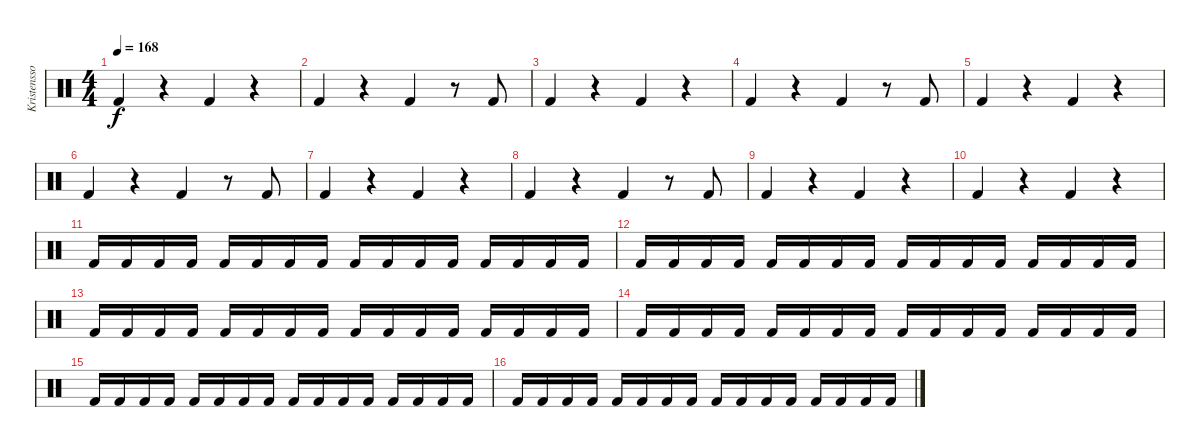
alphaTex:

\track ("Kristensson" "Kristensso") {instrument percussion}
\staff {score}
\articulation defaults
\ts (4 4)
\tempo 168
\clef neutral
\ks c "Kick (hit) 2".4{dy f}
r.4 "Kick (hit) 2".4 r.4 |
"Kick (hit) 2".4 r.4 "Kick (hit) 2".4 r.8 "Kick (hit) 2".8 |
"Kick (hit) 2".4 r.4 "Kick (hit) 2".4 r.4 |
"Kick (hit) 2".4 r.4 "Kick (hit) 2".4 r.8 "Kick (hit) 2".8 |
"Kick (hit) 2".4 r.4 "Kick (hit) 2".4 r.4 |
"Kick (hit) 2".4 r.4 "Kick (hit) 2".4 r.8 "Kick (hit) 2".8 |
"Kick (hit) 2".4 r.4 "Kick (hit) 2".4 r.4 |
"Kick (hit) 2".4 r.4 "Kick (hit) 2".4 r.8 "Kick (hit) 2".8 |
"Kick (hit) 2".4 r.4 "Kick (hit) 2".4 r.4 |
"Kick (hit) 2".4 r.4 "Kick (hit) 2".4 r.4 |
"Kick (hit) 2".16 "Kick (hit) 2".16 "Kick (hit) 2".16 "Kick (hit) 2".16 "Kick (hit) 2".16 "Kick (hit) 2".16 "Kick (hit) 2".16 "Kick (hit) 2".16 "Kick (hit) 2".16 "Kick (hit) 2".16 "Kick (hit) 2".16 "Kick (hit) 2".16 "Kick (hit) 2".16 "Kick (hit) 2".16 "Kick (hit) 2".16 "Kick (hit) 2".16 |
"Kick (hit) 2".16 "Kick (hit) 2".16 "Kick (hit) 2".16 "Kick (hit) 2".16 "Kick (hit) 2".16 "Kick (hit) 2".16 "Kick (hit) 2".16 "Kick (hit) 2".16 "Kick (hit) 2".16 "Kick (hit) 2".16 "Kick (hit) 2".16 "Kick (hit) 2".16 "Kick (hit) 2".16 "Kick (hit) 2".16 "Kick (hit) 2".16 "Kick (hit) 2".16 |
"Kick (hit) 2".16 "Kick (hit) 2".16 "Kick (hit) 2".16 "Kick (hit) 2".16 "Kick (hit) 2".16 "Kick (hit) 2".16 "Kick (hit) 2".16 "Kick (hit) 2".16 "Kick (hit) 2".16 "Kick (hit) 2".16 "Kick (hit) 2".16 "Kick (hit) 2".16 "Kick (hit) 2".16 "Kick (hit) 2".16 "Kick (hit) 2".16 "Kick (hit) 2".16 |
"Kick (hit) 2".16 "Kick (hit) 2".16 "Kick (hit) 2".16 "Kick (hit) 2".16 "Kick (hit) 2".16 "Kick (hit) 2".16 "Kick (hit) 2".16 "Kick (hit) 2".16 "Kick (hit) 2".16 "Kick (hit) 2".16 "Kick (hit) 2".16 "Kick (hit) 2".16 "Kick (hit) 2".16 "Kick (hit) 2".16 "Kick (hit) 2".16 "Kick (hit) 2".16 |
"Kick (hit) 2".16 "Kick (hit) 2".16 "Kick (hit) 2".16 "Kick (hit) 2".16 "Kick (hit) 2".16 "Kick (hit) 2".16 "Kick (hit) 2".16 "Kick (hit) 2".16 "Kick (hit) 2".16 "Kick (hit) 2".16 "Kick (hit) 2".16 "Kick (hit) 2".16 "Kick (hit) 2".16 "Kick (hit) 2".16 "Kick (hit) 2".16 "Kick (hit) 2".16 |
"Kick (hit) 2".16 "Kick (hit) 2".16 "Kick (hit) 2".16 "Kick (hit) 2".16 "Kick (hit) 2".16 "Kick (hit) 2".16 "Kick (hit) 2".16 "Kick (hit) 2".16 "Kick (hit) 2".16 "Kick (hit) 2".16 "Kick (hit) 2".16 "Kick (hit) 2".16 "Kick (hit) 2".16 "Kick (hit) 2".16 "Kick (hit) 2".16 "Kick (hit) 2".16
